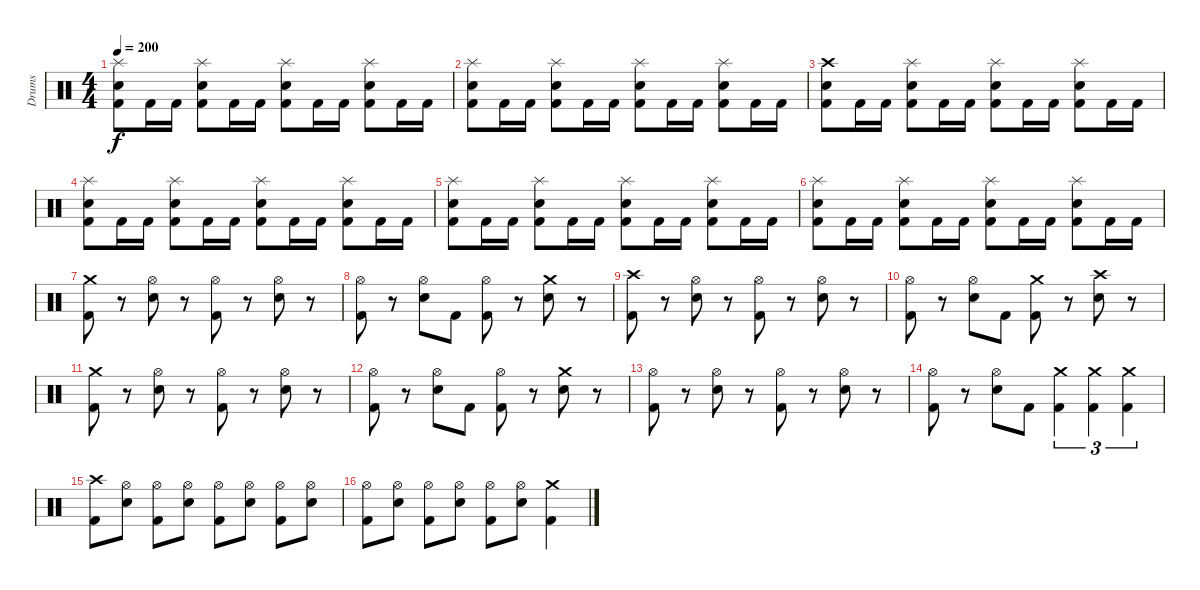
\track ("Drums" "Drums") {instrument percussion}
\staff {score}
\articulation defaults
\ts (4 4)
\tempo 200
\clef neutral
\ks c
("Splash (hit)" "Electric Snare (hit)" "Kick (hit) 2").8{dy f} "Kick (hit) 2".16 "Kick (hit) 2".16 ("Splash (hit)" "Electric Snare (hit)" "Kick (hit) 2").8 "Kick (hit) 2".16 "Kick (hit) 2".16 ("Splash (hit)" "Electric Snare (hit)" "Kick (hit) 2").8 "Kick (hit) 2".16 "Kick (hit) 2".16 ("Splash (hit)" "Electric Snare (hit)" "Kick (hit) 2").8 "Kick (hit) 2".16 "Kick (hit) 2".16 |
("Splash (hit)" "Electric Snare (hit)" "Kick (hit) 2").8 "Kick (hit) 2".16 "Kick (hit) 2".16 ("Splash (hit)" "Electric Snare (hit)" "Kick (hit) 2").8 "Kick (hit) 2".16 "Kick (hit) 2".16 ("Splash (hit)" "Electric Snare (hit)" "Kick (hit) 2").8 "Kick (hit) 2".16 "Kick (hit) 2".16 ("Splash (hit)" "Electric Snare (hit)" "Kick (hit) 2").8 "Kick (hit) 2".16 "Kick (hit) 2".16 |
("Crash high (hit)" "Electric Snare (hit)" "Kick (hit) 2").8 "Kick (hit) 2".16 "Kick (hit) 2".16 ("Splash (hit)" "Electric Snare (hit)" "Kick (hit) 2").8 "Kick (hit) 2".16 "Kick (hit) 2".16 ("Splash (hit)" "Electric Snare (hit)" "Kick (hit) 2").8 "Kick (hit) 2".16 "Kick (hit) 2".16 ("Splash (hit)" "Electric Snare (hit)" "Kick (hit) 2").8 "Kick (hit) 2".16 "Kick (hit) 2".16 |
("Splash (hit)" "Electric Snare (hit)" "Kick (hit) 2").8 "Kick (hit) 2".16 "Kick (hit) 2".16 ("Splash (hit)" "Electric Snare (hit)" "Kick (hit) 2").8 "Kick (hit) 2".16 "Kick (hit) 2".16 ("Splash (hit)" "Electric Snare (hit)" "Kick (hit) 2").8 "Kick (hit) 2".16 "Kick (hit) 2".16 ("Splash (hit)" "Electric Snare (hit)" "Kick (hit) 2").8 "Kick (hit) 2".16 "Kick (hit) 2".16 |
("Splash (hit)" "Electric Snare (hit)" "Kick (hit) 2").8 "Kick (hit) 2".16 "Kick (hit) 2".16 ("Splash (hit)" "Electric Snare (hit)" "Kick (hit) 2").8 "Kick (hit) 2".16 "Kick (hit) 2".16 ("Splash (hit)" "Electric Snare (hit)" "Kick (hit) 2").8 "Kick (hit) 2".16 "Kick (hit) 2".16 ("Splash (hit)" "Electric Snare (hit)" "Kick (hit) 2").8 "Kick (hit) 2".16 "Kick (hit) 2".16 |
("Splash (hit)" "Electric Snare (hit)" "Kick (hit) 2").8 "Kick (hit) 2".16 "Kick (hit) 2".16 ("Splash (hit)" "Electric Snare (hit)" "Kick (hit) 2").8 "Kick (hit) 2".16 "Kick (hit) 2".16 ("Splash (hit)" "Electric Snare (hit)" "Kick (hit) 2").8 "Kick (hit) 2".16 "Kick (hit) 2".16 ("Splash (hit)" "Electric Snare (hit)" "Kick (hit) 2").8 "Kick (hit) 2".16 "Kick (hit) 2".16 |
("Crash medium (hit)" "Kick (hit) 2").8 r.8 ("Hi-Hat (open)" "Electric Snare (hit)").8 r.8 ("Hi-Hat (open)" "Kick (hit) 2").8 r.8 ("Hi-Hat (open)" "Electric Snare (hit)").8 r.8 |
("Hi-Hat (open)" "Kick (hit) 2").8 r.8 ("Hi-Hat (open)" "Electric Snare (hit)").8 "Kick (hit) 2".8 ("Hi-Hat (open)" "Kick (hit) 2").8 r.8 ("Crash medium (hit)" "Electric Snare (hit)").8 r.8 |
("Crash high (hit)" "Kick (hit) 2").8 r.8 ("Hi-Hat (open)" "Electric Snare (hit)").8 r.8 ("Hi-Hat (open)" "Kick (hit) 2").8 r.8 ("Hi-Hat (open)" "Electric Snare (hit)").8 r.8 |
("Hi-Hat (open)" "Kick (hit) 2").8 r.8 ("Hi-Hat (open)" "Electric Snare (hit)").8 "Kick (hit) 2".8 ("Crash medium (hit)" "Kick (hit) 2").8 r.8 ("Crash high (hit)" "Electric Snare (hit)").8 r.8 |
("Crash medium (hit)" "Kick (hit) 2").8 r.8 ("Hi-Hat (open)" "Electric Snare (hit)").8 r.8 ("Hi-Hat (open)" "Kick (hit) 2").8 r.8 ("Hi-Hat (open)" "Electric Snare (hit)").8 r.8 |
("Hi-Hat (open)" "Kick (hit) 2").8 r.8 ("Hi-Hat (open)" "Electric Snare (hit)").8 "Kick (hit) 2".8 ("Hi-Hat (open)" "Kick (hit) 2").8 r.8 ("Crash medium (hit)" "Electric Snare (hit)").8 r.8 |
("Hi-Hat (open)" "Kick (hit) 2").8 r.8 ("Hi-Hat (open)" "Electric Snare (hit)").8 r.8 ("Hi-Hat (open)" "Kick (hit) 2").8 r.8 ("Hi-Hat (open)" "Electric Snare (hit)").8 r.8 |
("Hi-Hat (open)" "Kick (hit) 2").8 r.8 ("Hi-Hat (open)" "Electric Snare (hit)").8 "Kick (hit) 2".8 ("Crash medium (hit)" "Kick (hit) 2").4{tu (3 2)} ("Crash medium (hit)" "Kick (hit) 2").4{tu (3 2)} ("Crash medium (hit)" "Kick (hit) 2").4{tu (3 2)} |
("Crash high (hit)" "Kick (hit) 2").8 ("Hi-Hat (open)" "Electric Snare (hit)").8 ("Hi-Hat (open)" "Kick (hit) 2").8 ("Hi-Hat (open)" "Electric Snare (hit)").8 ("Hi-Hat (open)" "Kick (hit) 2").8 ("Hi-Hat (open)" "Electric Snare (hit)").8 ("Hi-Hat (open)" "Kick (hit) 2").8 ("Hi-Hat (open)" "Electric Snare (hit)").8 |
("Hi-Hat (open)" "Kick (hit) 2").8 ("Hi-Hat (open)" "Electric Snare (hit)").8 ("Hi-Hat (open)" "Kick (hit) 2").8 ("Hi-Hat (open)" "Electric Snare (hit)").8 ("Hi-Hat (open)" "Kick (hit) 2").8 ("Hi-Hat (open)" "Electric Snare (hit)").8 ("Crash medium (hit)" "Kick (hit) 2").4
